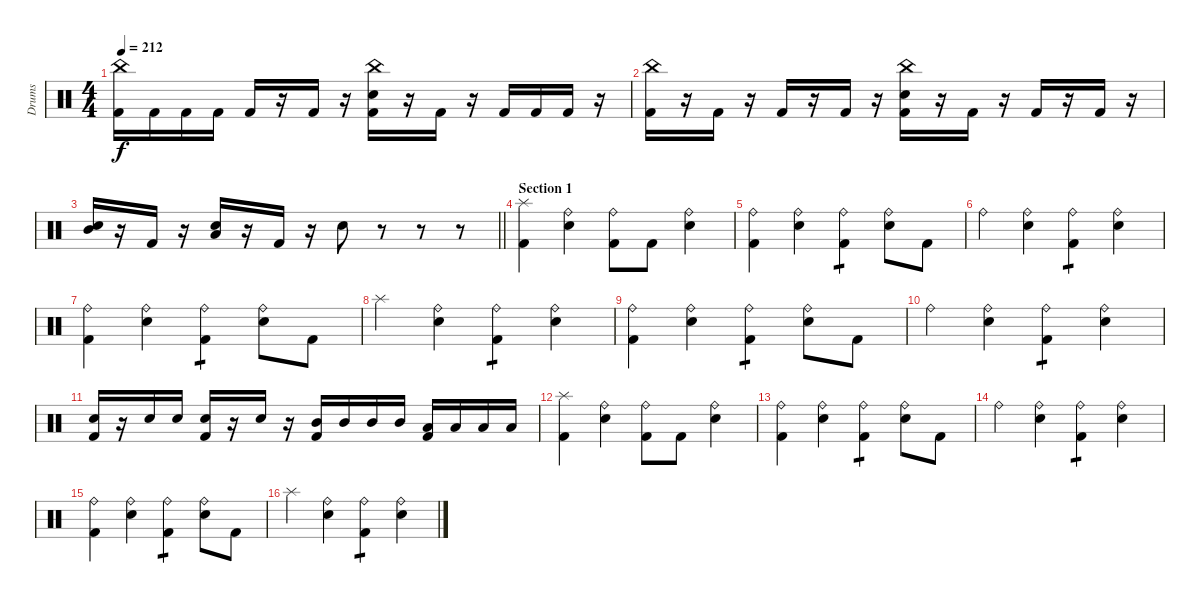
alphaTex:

\track ("Drums" "Drums") {instrument percussion}
\staff {score}
\articulation defaults
\ts (4 4)
\tempo 212
\clef neutral
\ks c
("China (hit)" "Kick (hit) 2").16{dy f} "Kick (hit) 2".16 "Kick (hit) 2".16 "Kick (hit) 2".16 "Kick (hit) 2".16 r.16 "Kick (hit) 2".16 r.16 ("China (hit)" "Snare (hit) 2" "Kick (hit) 2").16 r.16 "Kick (hit) 2".16 r.16 "Kick (hit) 2".16 "Kick (hit) 2".16 "Kick (hit) 2".16 r.16 |
("China (hit)" "Kick (hit) 2").16 r.16 "Kick (hit) 2".16 r.16 "Kick (hit) 2".16 r.16 "Kick (hit) 2".16 r.16 ("China (hit)" "Snare (hit) 2" "Kick (hit) 2").16 r.16 "Kick (hit) 2".16 r.16 "Kick (hit) 2".16 r.16 "Kick (hit) 2".16 r.16 |
\barLineRight lightlight
("Mid Tom (hit)" "Snare (hit) 2").16 r.16 "Kick (hit) 2".16 r.16 ("Low Tom (hit)" "Snare (hit) 2").16 r.16 "Kick (hit) 2".16 r.16 "Snare (hit) 2".8 r.8 r.8 r.8 |
\section ("" "Section 1")
("Splash (hit)" "Kick (hit) 2").4 ("Ride (bell)" "Snare (hit) 2").4 ("Ride (bell)" "Kick (hit) 2").8 "Kick (hit) 2".8 ("Ride (bell)" "Snare (hit) 2").4 |
("Ride (bell)" "Kick (hit) 2").4 ("Ride (bell)" "Snare (hit) 2").4 ("Ride (bell)" "Kick (hit) 2").4{tp 1} ("Ride (bell)" "Snare (hit) 2").8 "Kick (hit) 2".8 |
"Ride (bell)".4 ("Ride (bell)" "Snare (hit) 2").4 ("Ride (bell)" "Kick (hit) 2").4{tp 1} ("Ride (bell)" "Snare (hit) 2").4 |
("Ride (bell)" "Kick (hit) 2").4 ("Ride (bell)" "Snare (hit) 2").4 ("Ride (bell)" "Kick (hit) 2").4{tp 1} ("Ride (bell)" "Snare (hit) 2").8 "Kick (hit) 2".8 |
"Splash (hit)".4 ("Ride (bell)" "Snare (hit) 2").4 ("Ride (bell)" "Kick (hit) 2").4{tp 1} ("Ride (bell)" "Snare (hit) 2").4 |
("Ride (bell)" "Kick (hit) 2").4 ("Ride (bell)" "Snare (hit) 2").4 ("Ride (bell)" "Kick (hit) 2").4{tp 1} ("Ride (bell)" "Snare (hit) 2").8 "Kick (hit) 2".8 |
"Ride (bell)".4 ("Ride (bell)" "Snare (hit) 2").4 ("Ride (bell)" "Kick (hit) 2").4{tp 1} ("Ride (bell)" "Snare (hit) 2").4 |
("Snare (hit) 2" "Kick (hit) 2").16 r.16 "Snare (hit) 2".16 "Snare (hit) 2".16 ("Snare (hit) 2" "Kick (hit) 2").16 r.16 "Snare (hit) 2".16 r.16 ("Mid Tom (hit)" "Kick (hit) 2").16 "Mid Tom (hit)".16 "Mid Tom (hit)".16 "Mid Tom (hit)".16 ("Low Tom (hit)" "Kick (hit) 2").16 "Low Tom (hit)".16 "Low Tom (hit)".16 "Low Tom (hit)".16 |
("Splash (hit)" "Kick (hit) 2").4 ("Ride (bell)" "Snare (hit) 2").4 ("Ride (bell)" "Kick (hit) 2").8 "Kick (hit) 2".8 ("Ride (bell)" "Snare (hit) 2").4 |
("Ride (bell)" "Kick (hit) 2").4 ("Ride (bell)" "Snare (hit) 2").4 ("Ride (bell)" "Kick (hit) 2").4{tp 1} ("Ride (bell)" "Snare (hit) 2").8 "Kick (hit) 2".8 |
"Ride (bell)".4 ("Ride (bell)" "Snare (hit) 2").4 ("Ride (bell)" "Kick (hit) 2").4{tp 1} ("Ride (bell)" "Snare (hit) 2").4 |
("Ride (bell)" "Kick (hit) 2").4 ("Ride (bell)" "Snare (hit) 2").4 ("Ride (bell)" "Kick (hit) 2").4{tp 1} ("Ride (bell)" "Snare (hit) 2").8 "Kick (hit) 2".8 |
"Splash (hit)".4 ("Ride (bell)" "Snare (hit) 2").4 ("Ride (bell)" "Kick (hit) 2").4{tp 1} ("Ride (bell)" "Snare (hit) 2").4
